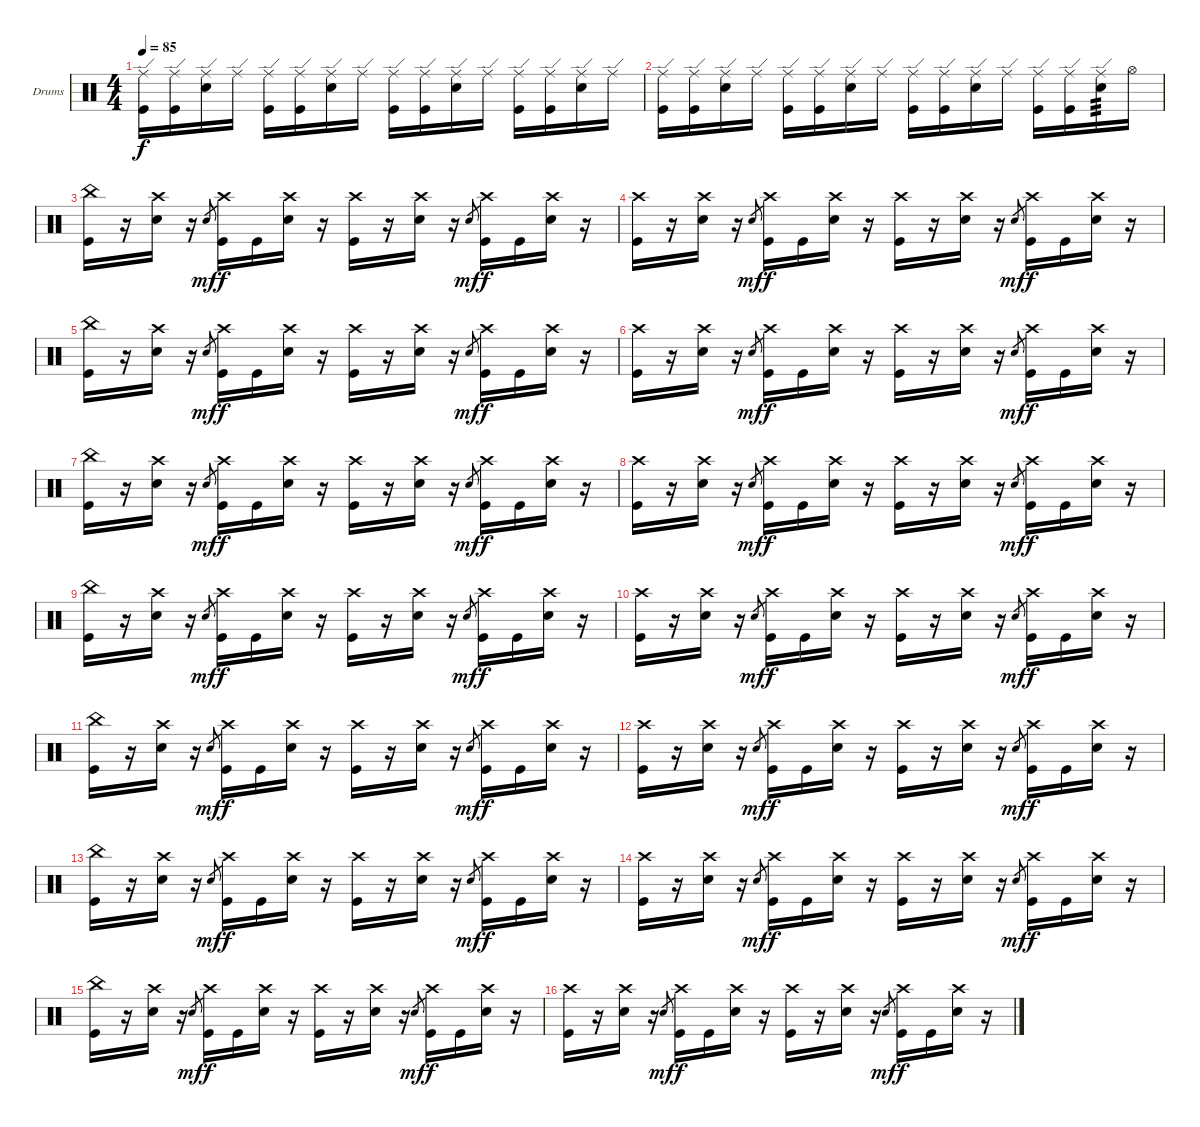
\defaultSystemsLayout 4
\bracketExtendMode groupsimilarinstruments
\firstSystemTrackNameOrientation horizontal
\otherSystemsTrackNameOrientation horizontal
\track ("Drumkit" "Drums") {instrument percussion}
\staff {score}
\articulation defaults
\ts (4 4)
\tempo 85
\clef neutral
\scale
0.333333
\ks c
("Ride (edge)" "Kick (hit)").16{dy f} ("Ride (edge)" "Kick (hit)").16 ("Ride (edge)" "Snare (hit) 2").16 "Ride (edge)".16 ("Ride (edge)" "Kick (hit)").16 ("Ride (edge)" "Kick (hit)").16 ("Ride (edge)" "Snare (hit) 2").16 "Ride (edge)".16 ("Ride (edge)" "Kick (hit)").16 ("Ride (edge)" "Kick (hit)").16 ("Ride (edge)" "Snare (hit) 2").16 "Ride (edge)".16 ("Ride (edge)" "Kick (hit)").16 ("Ride (edge)" "Kick (hit)").16 ("Ride (edge)" "Snare (hit) 2").16 "Ride (edge)".16 |
\scale
0.333333 ("Ride (edge)" "Kick (hit)").16 ("Ride (edge)" "Kick (hit)").16 ("Ride (edge)" "Snare (hit) 2").16 "Ride (edge)".16 ("Ride (edge)" "Kick (hit)").16 ("Ride (edge)" "Kick (hit)").16 ("Ride (edge)" "Snare (hit) 2").16 "Ride (edge)".16 ("Ride (edge)" "Kick (hit)").16 ("Ride (edge)" "Kick (hit)").16 ("Ride (edge)" "Snare (hit) 2").16 "Ride (edge)".16 ("Ride (edge)" "Kick (hit)").16 ("Ride (edge)" "Kick (hit)").16 ("Ride (edge)" "Snare (hit) 2").16{tp 3} "Hi-Hat (open)".16 |
\scale
0.333333 ("China (hit)" "Kick (hit)").16 r.16 ("Crash high (hit)" "Snare (hit) 2").16 r.16 "Snare (hit) 2".8{gr dy mf} ("Crash high (hit)" "Kick (hit)").16{dy f} "Kick (hit)".16 ("Crash high (hit)" "Snare (hit) 2").16 r.16 ("Crash high (hit)" "Kick (hit)").16 r.16 ("Crash high (hit)" "Snare (hit) 2").16 r.16 "Snare (hit) 2".8{gr dy mf} ("Crash high (hit)" "Kick (hit)").16{dy f} "Kick (hit)".16 ("Crash high (hit)" "Snare (hit) 2").16 r.16 |
\scale
0.333333 ("Crash high (hit)" "Kick (hit)").16 r.16 ("Crash high (hit)" "Snare (hit) 2").16 r.16 "Snare (hit) 2".8{gr dy mf} ("Crash high (hit)" "Kick (hit)").16{dy f} "Kick (hit)".16 ("Crash high (hit)" "Snare (hit) 2").16 r.16 ("Crash high (hit)" "Kick (hit)").16 r.16 ("Crash high (hit)" "Snare (hit) 2").16 r.16 "Snare (hit) 2".8{gr dy mf} ("Crash high (hit)" "Kick (hit)").16{dy f} "Kick (hit)".16 ("Crash high (hit)" "Snare (hit) 2").16 r.16 |
\scale
0.333333 ("China (hit)" "Kick (hit)").16 r.16 ("Crash high (hit)" "Snare (hit) 2").16 r.16 "Snare (hit) 2".8{gr dy mf} ("Crash high (hit)" "Kick (hit)").16{dy f} "Kick (hit)".16 ("Crash high (hit)" "Snare (hit) 2").16 r.16 ("Crash high (hit)" "Kick (hit)").16 r.16 ("Crash high (hit)" "Snare (hit) 2").16 r.16 "Snare (hit) 2".8{gr dy mf} ("Crash high (hit)" "Kick (hit)").16{dy f} "Kick (hit)".16 ("Crash high (hit)" "Snare (hit) 2").16 r.16 |
\scale
0.333333 ("Crash high (hit)" "Kick (hit)").16 r.16 ("Crash high (hit)" "Snare (hit) 2").16 r.16 "Snare (hit) 2".8{gr dy mf} ("Crash high (hit)" "Kick (hit)").16{dy f} "Kick (hit)".16 ("Crash high (hit)" "Snare (hit) 2").16 r.16 ("Crash high (hit)" "Kick (hit)").16 r.16 ("Crash high (hit)" "Snare (hit) 2").16 r.16 "Snare (hit) 2".8{gr dy mf} ("Crash high (hit)" "Kick (hit)").16{dy f} "Kick (hit)".16 ("Crash high (hit)" "Snare (hit) 2").16 r.16 |
\scale
0.333333 ("China (hit)" "Kick (hit)").16 r.16 ("Crash high (hit)" "Snare (hit) 2").16 r.16 "Snare (hit) 2".8{gr dy mf} ("Crash high (hit)" "Kick (hit)").16{dy f} "Kick (hit)".16 ("Crash high (hit)" "Snare (hit) 2").16 r.16 ("Crash high (hit)" "Kick (hit)").16 r.16 ("Crash high (hit)" "Snare (hit) 2").16 r.16 "Snare (hit) 2".8{gr dy mf} ("Crash high (hit)" "Kick (hit)").16{dy f} "Kick (hit)".16 ("Crash high (hit)" "Snare (hit) 2").16 r.16 |
\scale
0.333333 ("Crash high (hit)" "Kick (hit)").16 r.16 ("Crash high (hit)" "Snare (hit) 2").16 r.16 "Snare (hit) 2".8{gr dy mf} ("Crash high (hit)" "Kick (hit)").16{dy f} "Kick (hit)".16 ("Crash high (hit)" "Snare (hit) 2").16 r.16 ("Crash high (hit)" "Kick (hit)").16 r.16 ("Crash high (hit)" "Snare (hit) 2").16 r.16 "Snare (hit) 2".8{gr dy mf} ("Crash high (hit)" "Kick (hit)").16{dy f} "Kick (hit)".16 ("Crash high (hit)" "Snare (hit) 2").16 r.16 |
\scale
0.333333 ("China (hit)" "Kick (hit)").16 r.16 ("Crash high (hit)" "Snare (hit) 2").16 r.16 "Snare (hit) 2".8{gr dy mf} ("Crash high (hit)" "Kick (hit)").16{dy f} "Kick (hit)".16 ("Crash high (hit)" "Snare (hit) 2").16 r.16 ("Crash high (hit)" "Kick (hit)").16 r.16 ("Crash high (hit)" "Snare (hit) 2").16 r.16 "Snare (hit) 2".8{gr dy mf} ("Crash high (hit)" "Kick (hit)").16{dy f} "Kick (hit)".16 ("Crash high (hit)" "Snare (hit) 2").16 r.16 |
\scale
0.333333 ("Crash high (hit)" "Kick (hit)").16 r.16 ("Crash high (hit)" "Snare (hit) 2").16 r.16 "Snare (hit) 2".8{gr dy mf} ("Crash high (hit)" "Kick (hit)").16{dy f} "Kick (hit)".16 ("Crash high (hit)" "Snare (hit) 2").16 r.16 ("Crash high (hit)" "Kick (hit)").16 r.16 ("Crash high (hit)" "Snare (hit) 2").16 r.16 "Snare (hit) 2".8{gr dy mf} ("Crash high (hit)" "Kick (hit)").16{dy f} "Kick (hit)".16 ("Crash high (hit)" "Snare (hit) 2").16 r.16 |
\scale
0.333333 ("China (hit)" "Kick (hit)").16 r.16 ("Crash high (hit)" "Snare (hit) 2").16 r.16 "Snare (hit) 2".8{gr dy mf} ("Crash high (hit)" "Kick (hit)").16{dy f} "Kick (hit)".16 ("Crash high (hit)" "Snare (hit) 2").16 r.16 ("Crash high (hit)" "Kick (hit)").16 r.16 ("Crash high (hit)" "Snare (hit) 2").16 r.16 "Snare (hit) 2".8{gr dy mf} ("Crash high (hit)" "Kick (hit)").16{dy f} "Kick (hit)".16 ("Crash high (hit)" "Snare (hit) 2").16 r.16 |
\scale
0.333333 ("Crash high (hit)" "Kick (hit)").16 r.16 ("Crash high (hit)" "Snare (hit) 2").16 r.16 "Snare (hit) 2".8{gr dy mf} ("Crash high (hit)" "Kick (hit)").16{dy f} "Kick (hit)".16 ("Crash high (hit)" "Snare (hit) 2").16 r.16 ("Crash high (hit)" "Kick (hit)").16 r.16 ("Crash high (hit)" "Snare (hit) 2").16 r.16 "Snare (hit) 2".8{gr dy mf} ("Crash high (hit)" "Kick (hit)").16{dy f} "Kick (hit)".16 ("Crash high (hit)" "Snare (hit) 2").16 r.16 |
\scale
0.333333 ("China (hit)" "Kick (hit)").16 r.16 ("Crash high (hit)" "Snare (hit) 2").16 r.16 "Snare (hit) 2".8{gr dy mf} ("Crash high (hit)" "Kick (hit)").16{dy f} "Kick (hit)".16 ("Crash high (hit)" "Snare (hit) 2").16 r.16 ("Crash high (hit)" "Kick (hit)").16 r.16 ("Crash high (hit)" "Snare (hit) 2").16 r.16 "Snare (hit) 2".8{gr dy mf} ("Crash high (hit)" "Kick (hit)").16{dy f} "Kick (hit)".16 ("Crash high (hit)" "Snare (hit) 2").16 r.16 |
\scale
0.333333 ("Crash high (hit)" "Kick (hit)").16 r.16 ("Crash high (hit)" "Snare (hit) 2").16 r.16 "Snare (hit) 2".8{gr dy mf} ("Crash high (hit)" "Kick (hit)").16{dy f} "Kick (hit)".16 ("Crash high (hit)" "Snare (hit) 2").16 r.16 ("Crash high (hit)" "Kick (hit)").16 r.16 ("Crash high (hit)" "Snare (hit) 2").16 r.16 "Snare (hit) 2".8{gr dy mf} ("Crash high (hit)" "Kick (hit)").16{dy f} "Kick (hit)".16 ("Crash high (hit)" "Snare (hit) 2").16 r.16 |
\scale
0.333333 ("China (hit)" "Kick (hit)").16 r.16 ("Crash high (hit)" "Snare (hit) 2").16 r.16 "Snare (hit) 2".8{gr dy mf} ("Crash high (hit)" "Kick (hit)").16{dy f} "Kick (hit)".16 ("Crash high (hit)" "Snare (hit) 2").16 r.16 ("Crash high (hit)" "Kick (hit)").16 r.16 ("Crash high (hit)" "Snare (hit) 2").16 r.16 "Snare (hit) 2".8{gr dy mf} ("Crash high (hit)" "Kick (hit)").16{dy f} "Kick (hit)".16 ("Crash high (hit)" "Snare (hit) 2").16 r.16 |
\scale
0.333333 ("Crash high (hit)" "Kick (hit)").16 r.16 ("Crash high (hit)" "Snare (hit) 2").16 r.16 "Snare (hit) 2".8{gr dy mf} ("Crash high (hit)" "Kick (hit)").16{dy f} "Kick (hit)".16 ("Crash high (hit)" "Snare (hit) 2").16 r.16 ("Crash high (hit)" "Kick (hit)").16 r.16 ("Crash high (hit)" "Snare (hit) 2").16 r.16 "Snare (hit) 2".8{gr dy mf} ("Crash high (hit)" "Kick (hit)").16{dy f} "Kick (hit)".16 ("Crash high (hit)" "Snare (hit) 2").16 r.16
